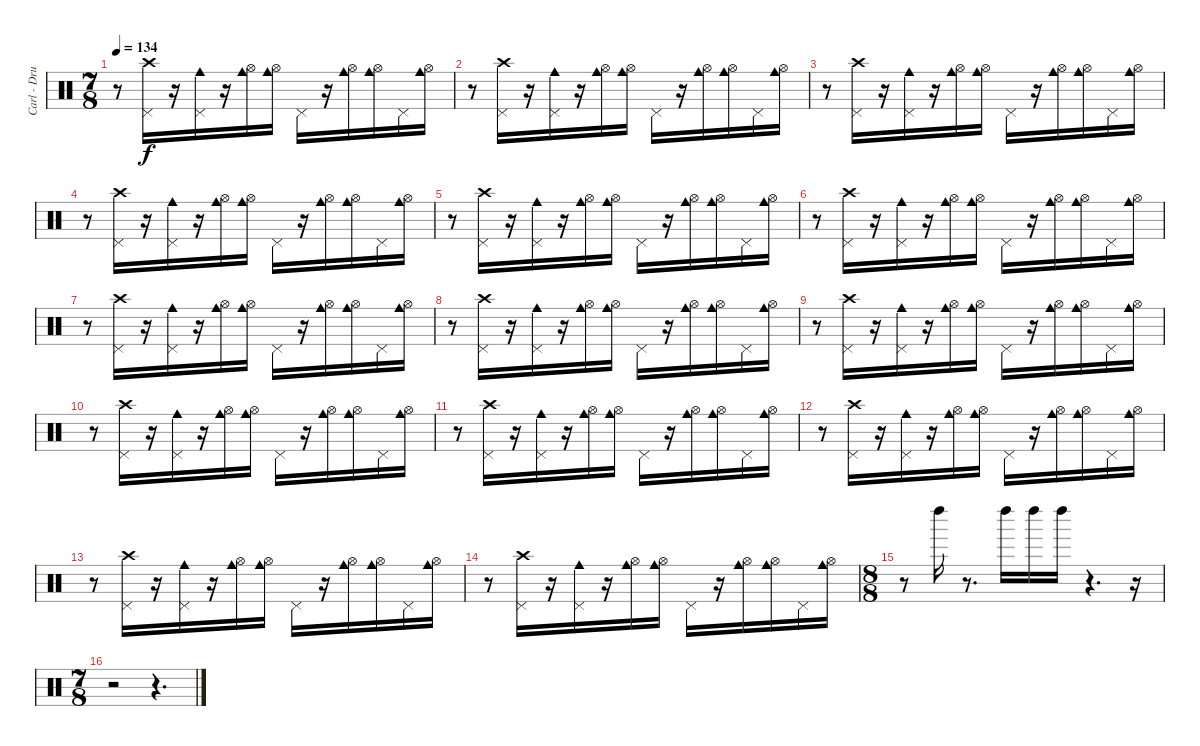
\track ("Carl - Drums" "Carl - Dru") {instrument percussion}
\staff {score}
\articulation defaults
\ts (7 8)
\tempo 134
\clef neutral
\ks c
r.8{dy f} ("Crash high (hit)" "Pedal Hi-Hat (hit)").16 r.16 ("Pedal Hi-Hat (hit)" "Cowbell medium (hit)").16 r.16 ("Hi-Hat (open)" "Cowbell medium (hit)").16 ("Hi-Hat (open)" "Cowbell medium (hit)").16 "Pedal Hi-Hat (hit)".16 r.16 ("Hi-Hat (open)" "Cowbell medium (hit)").16 ("Hi-Hat (open)" "Cowbell medium (hit)").16 "Pedal Hi-Hat (hit)".16 ("Hi-Hat (open)" "Cowbell medium (hit)").16 |
r.8 ("Crash high (hit)" "Pedal Hi-Hat (hit)").16 r.16 ("Pedal Hi-Hat (hit)" "Cowbell medium (hit)").16 r.16 ("Hi-Hat (open)" "Cowbell medium (hit)").16 ("Hi-Hat (open)" "Cowbell medium (hit)").16 "Pedal Hi-Hat (hit)".16 r.16 ("Hi-Hat (open)" "Cowbell medium (hit)").16 ("Hi-Hat (open)" "Cowbell medium (hit)").16 "Pedal Hi-Hat (hit)".16 ("Hi-Hat (open)" "Cowbell medium (hit)").16 |
r.8 ("Crash high (hit)" "Pedal Hi-Hat (hit)").16 r.16 ("Pedal Hi-Hat (hit)" "Cowbell medium (hit)").16 r.16 ("Hi-Hat (open)" "Cowbell medium (hit)").16 ("Hi-Hat (open)" "Cowbell medium (hit)").16 "Pedal Hi-Hat (hit)".16 r.16 ("Hi-Hat (open)" "Cowbell medium (hit)").16 ("Hi-Hat (open)" "Cowbell medium (hit)").16 "Pedal Hi-Hat (hit)".16 ("Hi-Hat (open)" "Cowbell medium (hit)").16 |
r.8 ("Crash high (hit)" "Pedal Hi-Hat (hit)").16 r.16 ("Pedal Hi-Hat (hit)" "Cowbell medium (hit)").16 r.16 ("Hi-Hat (open)" "Cowbell medium (hit)").16 ("Hi-Hat (open)" "Cowbell medium (hit)").16 "Pedal Hi-Hat (hit)".16 r.16 ("Hi-Hat (open)" "Cowbell medium (hit)").16 ("Hi-Hat (open)" "Cowbell medium (hit)").16 "Pedal Hi-Hat (hit)".16 ("Hi-Hat (open)" "Cowbell medium (hit)").16 |
r.8 ("Crash high (hit)" "Pedal Hi-Hat (hit)").16 r.16 ("Pedal Hi-Hat (hit)" "Cowbell medium (hit)").16 r.16 ("Hi-Hat (open)" "Cowbell medium (hit)").16 ("Hi-Hat (open)" "Cowbell medium (hit)").16 "Pedal Hi-Hat (hit)".16 r.16 ("Hi-Hat (open)" "Cowbell medium (hit)").16 ("Hi-Hat (open)" "Cowbell medium (hit)").16 "Pedal Hi-Hat (hit)".16 ("Hi-Hat (open)" "Cowbell medium (hit)").16 |
r.8 ("Crash high (hit)" "Pedal Hi-Hat (hit)").16 r.16 ("Pedal Hi-Hat (hit)" "Cowbell medium (hit)").16 r.16 ("Hi-Hat (open)" "Cowbell medium (hit)").16 ("Hi-Hat (open)" "Cowbell medium (hit)").16 "Pedal Hi-Hat (hit)".16 r.16 ("Hi-Hat (open)" "Cowbell medium (hit)").16 ("Hi-Hat (open)" "Cowbell medium (hit)").16 "Pedal Hi-Hat (hit)".16 ("Hi-Hat (open)" "Cowbell medium (hit)").16 |
r.8 ("Crash high (hit)" "Pedal Hi-Hat (hit)").16 r.16 ("Pedal Hi-Hat (hit)" "Cowbell medium (hit)").16 r.16 ("Hi-Hat (open)" "Cowbell medium (hit)").16 ("Hi-Hat (open)" "Cowbell medium (hit)").16 "Pedal Hi-Hat (hit)".16 r.16 ("Hi-Hat (open)" "Cowbell medium (hit)").16 ("Hi-Hat (open)" "Cowbell medium (hit)").16 "Pedal Hi-Hat (hit)".16 ("Hi-Hat (open)" "Cowbell medium (hit)").16 |
r.8 ("Crash high (hit)" "Pedal Hi-Hat (hit)").16 r.16 ("Pedal Hi-Hat (hit)" "Cowbell medium (hit)").16 r.16 ("Hi-Hat (open)" "Cowbell medium (hit)").16 ("Hi-Hat (open)" "Cowbell medium (hit)").16 "Pedal Hi-Hat (hit)".16 r.16 ("Hi-Hat (open)" "Cowbell medium (hit)").16 ("Hi-Hat (open)" "Cowbell medium (hit)").16 "Pedal Hi-Hat (hit)".16 ("Hi-Hat (open)" "Cowbell medium (hit)").16 |
r.8 ("Crash high (hit)" "Pedal Hi-Hat (hit)").16 r.16 ("Pedal Hi-Hat (hit)" "Cowbell medium (hit)").16 r.16 ("Hi-Hat (open)" "Cowbell medium (hit)").16 ("Hi-Hat (open)" "Cowbell medium (hit)").16 "Pedal Hi-Hat (hit)".16 r.16 ("Hi-Hat (open)" "Cowbell medium (hit)").16 ("Hi-Hat (open)" "Cowbell medium (hit)").16 "Pedal Hi-Hat (hit)".16 ("Hi-Hat (open)" "Cowbell medium (hit)").16 |
r.8 ("Crash high (hit)" "Pedal Hi-Hat (hit)").16 r.16 ("Pedal Hi-Hat (hit)" "Cowbell medium (hit)").16 r.16 ("Hi-Hat (open)" "Cowbell medium (hit)").16 ("Hi-Hat (open)" "Cowbell medium (hit)").16 "Pedal Hi-Hat (hit)".16 r.16 ("Hi-Hat (open)" "Cowbell medium (hit)").16 ("Hi-Hat (open)" "Cowbell medium (hit)").16 "Pedal Hi-Hat (hit)".16 ("Hi-Hat (open)" "Cowbell medium (hit)").16 |
r.8 ("Crash high (hit)" "Pedal Hi-Hat (hit)").16 r.16 ("Pedal Hi-Hat (hit)" "Cowbell medium (hit)").16 r.16 ("Hi-Hat (open)" "Cowbell medium (hit)").16 ("Hi-Hat (open)" "Cowbell medium (hit)").16 "Pedal Hi-Hat (hit)".16 r.16 ("Hi-Hat (open)" "Cowbell medium (hit)").16 ("Hi-Hat (open)" "Cowbell medium (hit)").16 "Pedal Hi-Hat (hit)".16 ("Hi-Hat (open)" "Cowbell medium (hit)").16 |
r.8 ("Crash high (hit)" "Pedal Hi-Hat (hit)").16 r.16 ("Pedal Hi-Hat (hit)" "Cowbell medium (hit)").16 r.16 ("Hi-Hat (open)" "Cowbell medium (hit)").16 ("Hi-Hat (open)" "Cowbell medium (hit)").16 "Pedal Hi-Hat (hit)".16 r.16 ("Hi-Hat (open)" "Cowbell medium (hit)").16 ("Hi-Hat (open)" "Cowbell medium (hit)").16 "Pedal Hi-Hat (hit)".16 ("Hi-Hat (open)" "Cowbell medium (hit)").16 |
r.8 ("Crash high (hit)" "Pedal Hi-Hat (hit)").16 r.16 ("Pedal Hi-Hat (hit)" "Cowbell medium (hit)").16 r.16 ("Hi-Hat (open)" "Cowbell medium (hit)").16 ("Hi-Hat (open)" "Cowbell medium (hit)").16 "Pedal Hi-Hat (hit)".16 r.16 ("Hi-Hat (open)" "Cowbell medium (hit)").16 ("Hi-Hat (open)" "Cowbell medium (hit)").16 "Pedal Hi-Hat (hit)".16 ("Hi-Hat (open)" "Cowbell medium (hit)").16 |
r.8 ("Crash high (hit)" "Pedal Hi-Hat (hit)").16 r.16 ("Pedal Hi-Hat (hit)" "Cowbell medium (hit)").16 r.16 ("Hi-Hat (open)" "Cowbell medium (hit)").16 ("Hi-Hat (open)" "Cowbell medium (hit)").16 "Pedal Hi-Hat (hit)".16 r.16 ("Hi-Hat (open)" "Cowbell medium (hit)").16 ("Hi-Hat (open)" "Cowbell medium (hit)").16 "Pedal Hi-Hat (hit)".16 ("Hi-Hat (open)" "Cowbell medium (hit)").16 |
\ts (8 8)
r.8 "Left Maraca (hit)".16 r.8{d} "Left Maraca (hit)".16 "Left Maraca (hit)".16 "Left Maraca (hit)".16 r.4{d} r.16 |
\ts (7 8)
r.2 r.4{d}
